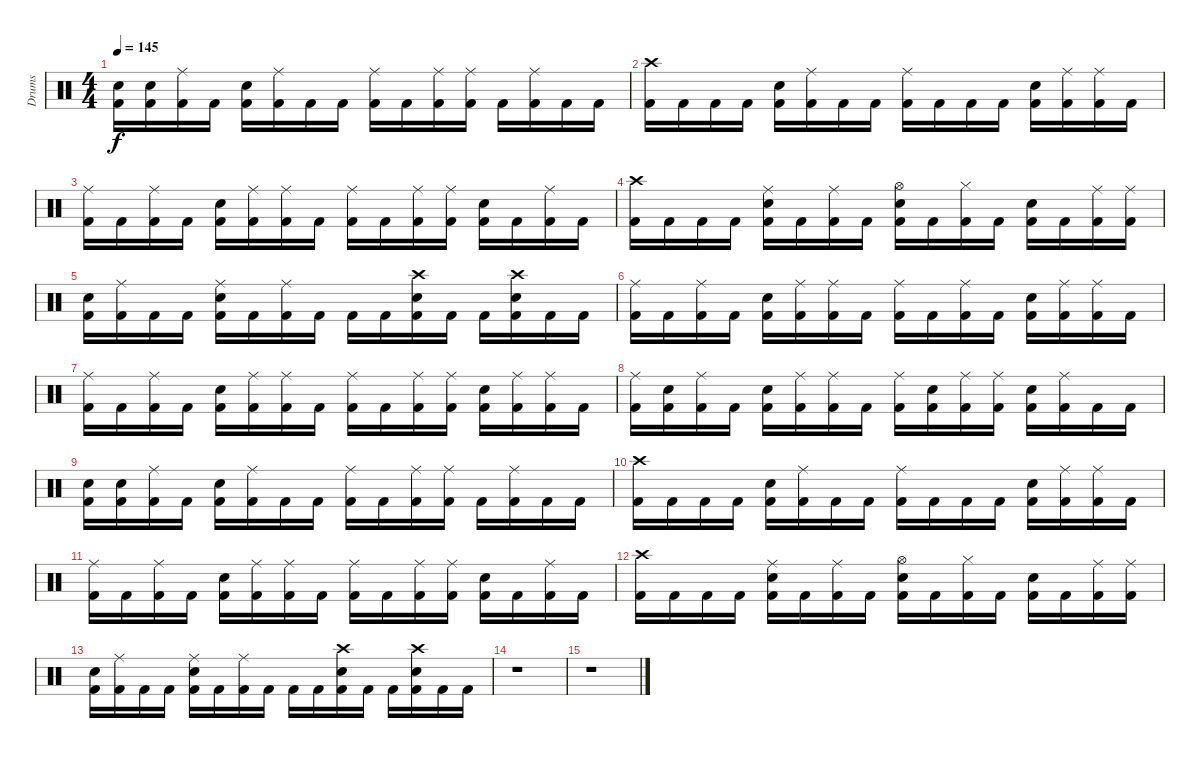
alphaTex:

\track ("Drums" "Drums") {instrument percussion}
\staff {score}
\articulation defaults
\ts (4 4)
\tempo 145
\clef neutral
\ks c
("Electric Snare (hit)" "Kick (hit) 2").16{dy f} ("Electric Snare (hit)" "Kick (hit) 2").16 ("Ride (middle)" "Kick (hit) 2").16 "Kick (hit) 2".16 ("Electric Snare (hit)" "Kick (hit) 2").16 ("Ride (middle)" "Kick (hit) 2").16 "Kick (hit) 2".16 "Kick (hit) 2".16 ("Ride (middle)" "Kick (hit) 2").16 "Kick (hit) 2".16 ("Ride (middle)" "Kick (hit) 2").16 ("Ride (middle)" "Kick (hit) 2").16 "Kick (hit) 2".16 ("Ride (middle)" "Kick (hit) 2").16 "Kick (hit) 2".16 "Kick (hit) 2".16 |
("Crash high (hit)" "Kick (hit) 2").16 "Kick (hit) 2".16 "Kick (hit) 2".16 "Kick (hit) 2".16 ("Electric Snare (hit)" "Kick (hit) 2").16 ("Ride (middle)" "Kick (hit) 2").16 "Kick (hit) 2".16 "Kick (hit) 2".16 ("Ride (middle)" "Kick (hit) 2").16 "Kick (hit) 2".16 "Kick (hit) 2".16 "Kick (hit) 2".16 ("Electric Snare (hit)" "Kick (hit) 2").16 ("Ride (middle)" "Kick (hit) 2").16 ("Ride (middle)" "Kick (hit) 2").16 "Kick (hit) 2".16 |
("Ride (middle)" "Kick (hit) 2").16 "Kick (hit) 2".16 ("Ride (middle)" "Kick (hit) 2").16 "Kick (hit) 2".16 ("Electric Snare (hit)" "Kick (hit) 2").16 ("Ride (middle)" "Kick (hit) 2").16 ("Ride (middle)" "Kick (hit) 2").16 "Kick (hit) 2".16 ("Ride (middle)" "Kick (hit) 2").16 "Kick (hit) 2".16 ("Ride (middle)" "Kick (hit) 2").16 ("Ride (middle)" "Kick (hit) 2").16 ("Electric Snare (hit)" "Kick (hit) 2").16 "Kick (hit) 2".16 ("Ride (middle)" "Kick (hit) 2").16 "Kick (hit) 2".16 |
("Crash high (hit)" "Kick (hit) 2").16 "Kick (hit) 2".16 "Kick (hit) 2".16 "Kick (hit) 2".16 ("Ride (middle)" "Electric Snare (hit)" "Kick (hit) 2").16 "Kick (hit) 2".16 ("Ride (middle)" "Kick (hit) 2").16 "Kick (hit) 2".16 ("Hi-Hat (open)" "Electric Snare (hit)" "Kick (hit) 2").16 "Kick (hit) 2".16 ("Hi-Hat (closed)" "Kick (hit) 2").16 "Kick (hit) 2".16 ("Electric Snare (hit)" "Kick (hit) 2").16 "Kick (hit) 2".16 ("Ride (middle)" "Kick (hit) 2").16 ("Ride (middle)" "Kick (hit) 2").16 |
("Electric Snare (hit)" "Kick (hit) 2").16 ("Ride (middle)" "Kick (hit) 2").16 "Kick (hit) 2".16 "Kick (hit) 2".16 ("Ride (middle)" "Electric Snare (hit)" "Kick (hit) 2").16 "Kick (hit) 2".16 ("Ride (middle)" "Kick (hit) 2").16 "Kick (hit) 2".16 "Kick (hit) 2".16 "Kick (hit) 2".16 ("Crash high (hit)" "Electric Snare (hit)" "Kick (hit) 2").16 "Kick (hit) 2".16 "Kick (hit) 2".16 ("Crash high (hit)" "Electric Snare (hit)" "Kick (hit) 2").16 "Kick (hit) 2".16 "Kick (hit) 2".16 |
("Ride (middle)" "Kick (hit) 2").16 "Kick (hit) 2".16 ("Ride (middle)" "Kick (hit) 2").16 "Kick (hit) 2".16 ("Electric Snare (hit)" "Kick (hit) 2").16 ("Ride (middle)" "Kick (hit) 2").16 ("Ride (middle)" "Kick (hit) 2").16 "Kick (hit) 2".16 ("Ride (middle)" "Kick (hit) 2").16 "Kick (hit) 2".16 ("Ride (middle)" "Kick (hit) 2").16 "Kick (hit) 2".16 ("Electric Snare (hit)" "Kick (hit) 2").16 ("Ride (middle)" "Kick (hit) 2").16 ("Ride (middle)" "Kick (hit) 2").16 "Kick (hit) 2".16 |
("Ride (middle)" "Kick (hit) 2").16 "Kick (hit) 2".16 ("Ride (middle)" "Kick (hit) 2").16 "Kick (hit) 2".16 ("Electric Snare (hit)" "Kick (hit) 2").16 ("Ride (middle)" "Kick (hit) 2").16 ("Ride (middle)" "Kick (hit) 2").16 "Kick (hit) 2".16 ("Ride (middle)" "Kick (hit) 2").16 "Kick (hit) 2".16 ("Ride (middle)" "Kick (hit) 2").16 ("Ride (middle)" "Kick (hit) 2").16 ("Electric Snare (hit)" "Kick (hit) 2").16 ("Ride (middle)" "Kick (hit) 2").16 ("Ride (middle)" "Kick (hit) 2").16 "Kick (hit) 2".16 |
("Ride (middle)" "Kick (hit) 2").16 ("Electric Snare (hit)" "Kick (hit) 2").16 ("Ride (middle)" "Kick (hit) 2").16 "Kick (hit) 2".16 ("Electric Snare (hit)" "Kick (hit) 2").16 ("Ride (middle)" "Kick (hit) 2").16 ("Ride (middle)" "Kick (hit) 2").16 "Kick (hit) 2".16 ("Ride (middle)" "Kick (hit) 2").16 ("Electric Snare (hit)" "Kick (hit) 2").16 ("Ride (middle)" "Kick (hit) 2").16 ("Ride (middle)" "Kick (hit) 2").16 ("Electric Snare (hit)" "Kick (hit) 2").16 ("Ride (middle)" "Kick (hit) 2").16 "Kick (hit) 2".16 "Kick (hit) 2".16 |
("Electric Snare (hit)" "Kick (hit) 2").16 ("Electric Snare (hit)" "Kick (hit) 2").16 ("Ride (middle)" "Kick (hit) 2").16 "Kick (hit) 2".16 ("Electric Snare (hit)" "Kick (hit) 2").16 ("Ride (middle)" "Kick (hit) 2").16 "Kick (hit) 2".16 "Kick (hit) 2".16 ("Ride (middle)" "Kick (hit) 2").16 "Kick (hit) 2".16 ("Ride (middle)" "Kick (hit) 2").16 ("Ride (middle)" "Kick (hit) 2").16 "Kick (hit) 2".16 ("Ride (middle)" "Kick (hit) 2").16 "Kick (hit) 2".16 "Kick (hit) 2".16 |
("Crash high (hit)" "Kick (hit) 2").16 "Kick (hit) 2".16 "Kick (hit) 2".16 "Kick (hit) 2".16 ("Electric Snare (hit)" "Kick (hit) 2").16 ("Ride (middle)" "Kick (hit) 2").16 "Kick (hit) 2".16 "Kick (hit) 2".16 ("Ride (middle)" "Kick (hit) 2").16 "Kick (hit) 2".16 "Kick (hit) 2".16 "Kick (hit) 2".16 ("Electric Snare (hit)" "Kick (hit) 2").16 ("Ride (middle)" "Kick (hit) 2").16 ("Ride (middle)" "Kick (hit) 2").16 "Kick (hit) 2".16 |
("Ride (middle)" "Kick (hit) 2").16{volume 9} "Kick (hit) 2".16 ("Ride (middle)" "Kick (hit) 2").16 "Kick (hit) 2".16 ("Electric Snare (hit)" "Kick (hit) 2").16 ("Ride (middle)" "Kick (hit) 2").16 ("Ride (middle)" "Kick (hit) 2").16 "Kick (hit) 2".16 ("Ride (middle)" "Kick (hit) 2").16 "Kick (hit) 2".16 ("Ride (middle)" "Kick (hit) 2").16 ("Ride (middle)" "Kick (hit) 2").16 ("Electric Snare (hit)" "Kick (hit) 2").16 "Kick (hit) 2".16 ("Ride (middle)" "Kick (hit) 2").16 "Kick (hit) 2".16 |
("Crash high (hit)" "Kick (hit) 2").16 "Kick (hit) 2".16 "Kick (hit) 2".16 "Kick (hit) 2".16 ("Ride (middle)" "Electric Snare (hit)" "Kick (hit) 2").16 "Kick (hit) 2".16 ("Ride (middle)" "Kick (hit) 2").16 "Kick (hit) 2".16 ("Hi-Hat (open)" "Electric Snare (hit)" "Kick (hit) 2").16 "Kick (hit) 2".16 ("Hi-Hat (closed)" "Kick (hit) 2").16 "Kick (hit) 2".16 ("Electric Snare (hit)" "Kick (hit) 2").16 "Kick (hit) 2".16 ("Ride (middle)" "Kick (hit) 2").16 ("Ride (middle)" "Kick (hit) 2").16 |
("Electric Snare (hit)" "Kick (hit) 2").16{volume 0} ("Ride (middle)" "Kick (hit) 2").16 "Kick (hit) 2".16 "Kick (hit) 2".16 ("Ride (middle)" "Electric Snare (hit)" "Kick (hit) 2").16 "Kick (hit) 2".16 ("Ride (middle)" "Kick (hit) 2").16 "Kick (hit) 2".16 "Kick (hit) 2".16 "Kick (hit) 2".16 ("Crash high (hit)" "Electric Snare (hit)" "Kick (hit) 2").16 "Kick (hit) 2".16 "Kick (hit) 2".16 ("Crash high (hit)" "Electric Snare (hit)" "Kick (hit) 2").16 "Kick (hit) 2".16 "Kick (hit) 2".16 |
r.1 |
r.1
